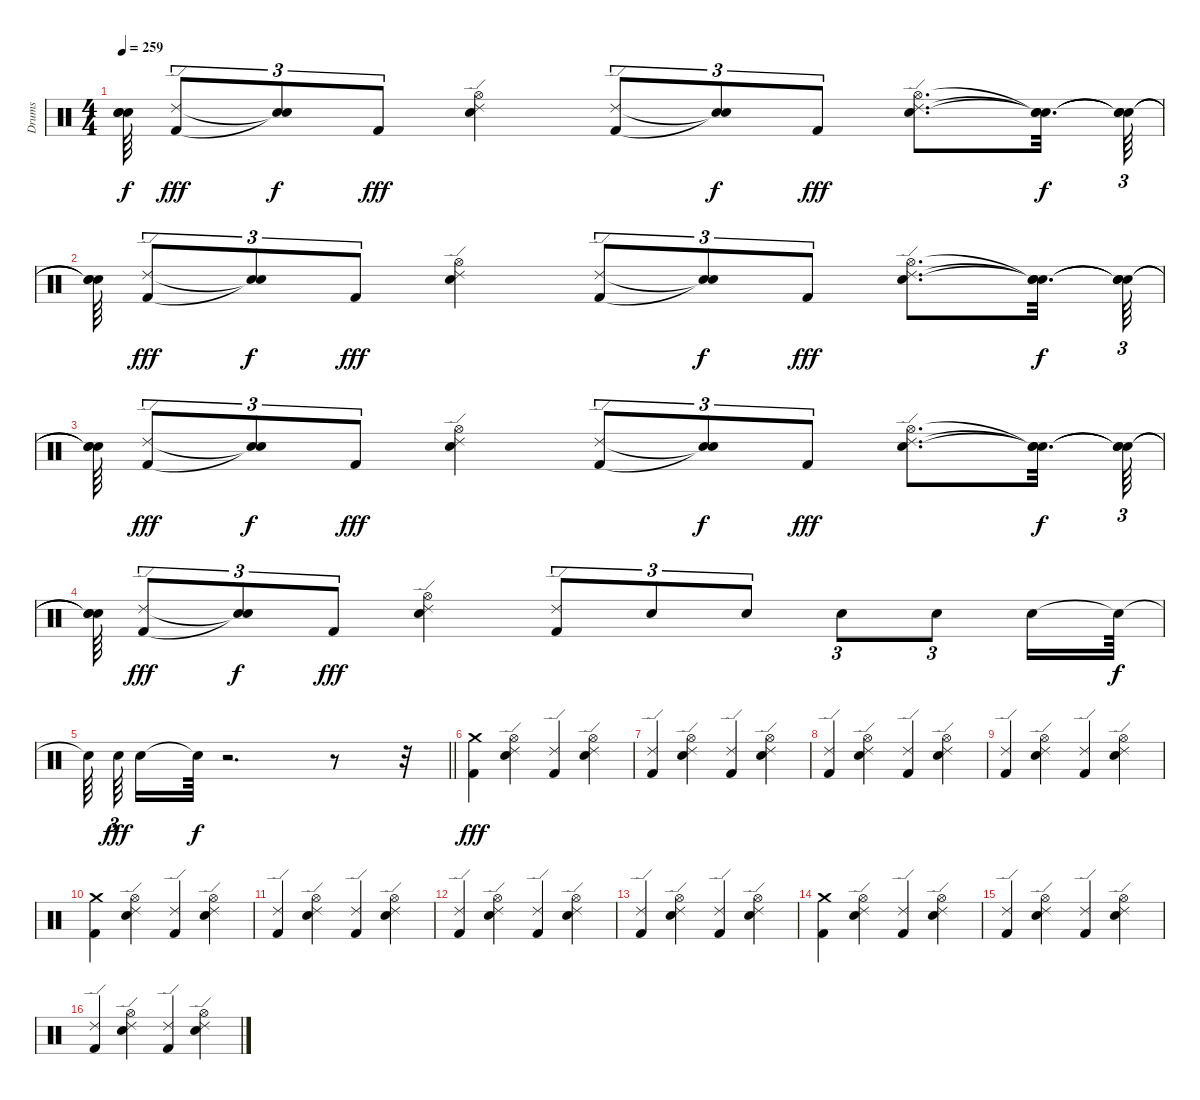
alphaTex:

\track ("Drums" "Drums") {instrument percussion}
\staff {score}
\articulation defaults
\ts (4 4)
\tempo 259
\clef neutral
\ks c
("Snare (hit)"{t} "Snare (hit)"{t} "Snare (hit)"{t}).64{dy f} ("Kick (hit) 2" "Ride (edge) 2").8{tu (3 2) dy fff} ("Snare (hit)"{t} "Snare (hit)"{t}).8{tu (3 2) dy f} "Kick (hit) 2".8{tu (3 2) dy fff} ("Electric Snare (hit)" "Ride (edge) 2" "Hi-Hat (open)").4 ("Kick (hit) 2" "Ride (edge) 2").8{tu (3 2)} ("Snare (hit)"{t} "Snare (hit)"{t}).8{tu (3 2) dy f} "Kick (hit) 2".8{tu (3 2) dy fff} ("Electric Snare (hit)" "Ride (edge) 2" "Hi-Hat (open)").8{d} ("Snare (hit)"{t} "Snare (hit)"{t} "Snare (hit)"{t}).32{d dy f} ("Snare (hit)"{t} "Snare (hit)"{t} "Snare (hit)"{t}).64{tu (3 2)} |
("Snare (hit)"{t} "Snare (hit)"{t} "Snare (hit)"{t}).64 ("Kick (hit) 2" "Ride (edge) 2").8{tu (3 2) dy fff} ("Snare (hit)"{t} "Snare (hit)"{t}).8{tu (3 2) dy f} "Kick (hit) 2".8{tu (3 2) dy fff} ("Electric Snare (hit)" "Ride (edge) 2" "Hi-Hat (open)").4 ("Kick (hit) 2" "Ride (edge) 2").8{tu (3 2)} ("Snare (hit)"{t} "Snare (hit)"{t}).8{tu (3 2) dy f} "Kick (hit) 2".8{tu (3 2) dy fff} ("Electric Snare (hit)" "Ride (edge) 2" "Hi-Hat (open)").8{d} ("Snare (hit)"{t} "Snare (hit)"{t} "Snare (hit)"{t}).32{d dy f} ("Snare (hit)"{t} "Snare (hit)"{t} "Snare (hit)"{t}).64{tu (3 2)} |
("Snare (hit)"{t} "Snare (hit)"{t} "Snare (hit)"{t}).64 ("Kick (hit) 2" "Ride (edge) 2").8{tu (3 2) dy fff} ("Snare (hit)"{t} "Snare (hit)"{t}).8{tu (3 2) dy f} "Kick (hit) 2".8{tu (3 2) dy fff} ("Electric Snare (hit)" "Ride (edge) 2" "Hi-Hat (open)").4 ("Kick (hit) 2" "Ride (edge) 2").8{tu (3 2)} ("Snare (hit)"{t} "Snare (hit)"{t}).8{tu (3 2) dy f} "Kick (hit) 2".8{tu (3 2) dy fff} ("Electric Snare (hit)" "Ride (edge) 2" "Hi-Hat (open)").8{d} ("Snare (hit)"{t} "Snare (hit)"{t} "Snare (hit)"{t}).32{d dy f} ("Snare (hit)"{t} "Snare (hit)"{t} "Snare (hit)"{t}).64{tu (3 2)} |
("Snare (hit)"{t} "Snare (hit)"{t} "Snare (hit)"{t}).64 ("Kick (hit) 2" "Ride (edge) 2").8{tu (3 2) dy fff} ("Snare (hit)"{t} "Snare (hit)"{t}).8{tu (3 2) dy f} "Kick (hit) 2".8{tu (3 2) dy fff} ("Electric Snare (hit)" "Ride (edge) 2" "Hi-Hat (open)").4 ("Kick (hit) 2" "Ride (edge) 2").8{tu (3 2)} "Electric Snare (hit)".8{tu (3 2)} "Electric Snare (hit)".8{tu (3 2)} "Electric Snare (hit)".8{tu (3 2)} "Electric Snare (hit)".8{tu (3 2)} "Electric Snare (hit)".16 "Snare (hit)"{t}.64{dy f} |
\barLineRight lightlight "Snare (hit)"{t}.64{beam splitsecondary} "Electric Snare (hit)".64{tu (3 2) dy fff beam splitsecondary} "Electric Snare (hit)".16 "Snare (hit)"{t}.64{dy f}
r.2{d} r.8 r.32 |
("Kick (hit) 2" "Crash medium (hit)").4{dy fff} ("Electric Snare (hit)" "Ride (edge) 2" "Hi-Hat (open)").4 ("Kick (hit) 2" "Ride (edge) 2").4 ("Electric Snare (hit)" "Ride (edge) 2" "Hi-Hat (open)").4 |
("Kick (hit) 2" "Ride (edge) 2").4 ("Electric Snare (hit)" "Ride (edge) 2" "Hi-Hat (open)").4 ("Kick (hit) 2" "Ride (edge) 2").4 ("Electric Snare (hit)" "Ride (edge) 2" "Hi-Hat (open)").4 |
("Kick (hit) 2" "Ride (edge) 2").4 ("Electric Snare (hit)" "Ride (edge) 2" "Hi-Hat (open)").4 ("Kick (hit) 2" "Ride (edge) 2").4 ("Electric Snare (hit)" "Ride (edge) 2" "Hi-Hat (open)").4 |
("Kick (hit) 2" "Ride (edge) 2").4 ("Electric Snare (hit)" "Ride (edge) 2" "Hi-Hat (open)").4 ("Kick (hit) 2" "Ride (edge) 2").4 ("Electric Snare (hit)" "Ride (edge) 2" "Hi-Hat (open)").4 |
("Kick (hit) 2" "Crash medium (hit)").4 ("Electric Snare (hit)" "Ride (edge) 2" "Hi-Hat (open)").4 ("Kick (hit) 2" "Ride (edge) 2").4 ("Electric Snare (hit)" "Ride (edge) 2" "Hi-Hat (open)").4 |
("Kick (hit) 2" "Ride (edge) 2").4 ("Electric Snare (hit)" "Ride (edge) 2" "Hi-Hat (open)").4 ("Kick (hit) 2" "Ride (edge) 2").4 ("Electric Snare (hit)" "Ride (edge) 2" "Hi-Hat (open)").4 |
("Kick (hit) 2" "Ride (edge) 2").4 ("Electric Snare (hit)" "Ride (edge) 2" "Hi-Hat (open)").4 ("Kick (hit) 2" "Ride (edge) 2").4 ("Electric Snare (hit)" "Ride (edge) 2" "Hi-Hat (open)").4 |
("Kick (hit) 2" "Ride (edge) 2").4 ("Electric Snare (hit)" "Ride (edge) 2" "Hi-Hat (open)").4 ("Kick (hit) 2" "Ride (edge) 2").4 ("Electric Snare (hit)" "Ride (edge) 2" "Hi-Hat (open)").4 |
("Kick (hit) 2" "Crash medium (hit)").4 ("Electric Snare (hit)" "Ride (edge) 2" "Hi-Hat (open)").4 ("Kick (hit) 2" "Ride (edge) 2").4 ("Electric Snare (hit)" "Ride (edge) 2" "Hi-Hat (open)").4 |
("Kick (hit) 2" "Ride (edge) 2").4 ("Electric Snare (hit)" "Ride (edge) 2" "Hi-Hat (open)").4 ("Kick (hit) 2" "Ride (edge) 2").4 ("Electric Snare (hit)" "Ride (edge) 2" "Hi-Hat (open)").4 |
("Kick (hit) 2" "Ride (edge) 2").4 ("Electric Snare (hit)" "Ride (edge) 2" "Hi-Hat (open)").4 ("Kick (hit) 2" "Ride (edge) 2").4 ("Electric Snare (hit)" "Ride (edge) 2" "Hi-Hat (open)").4
